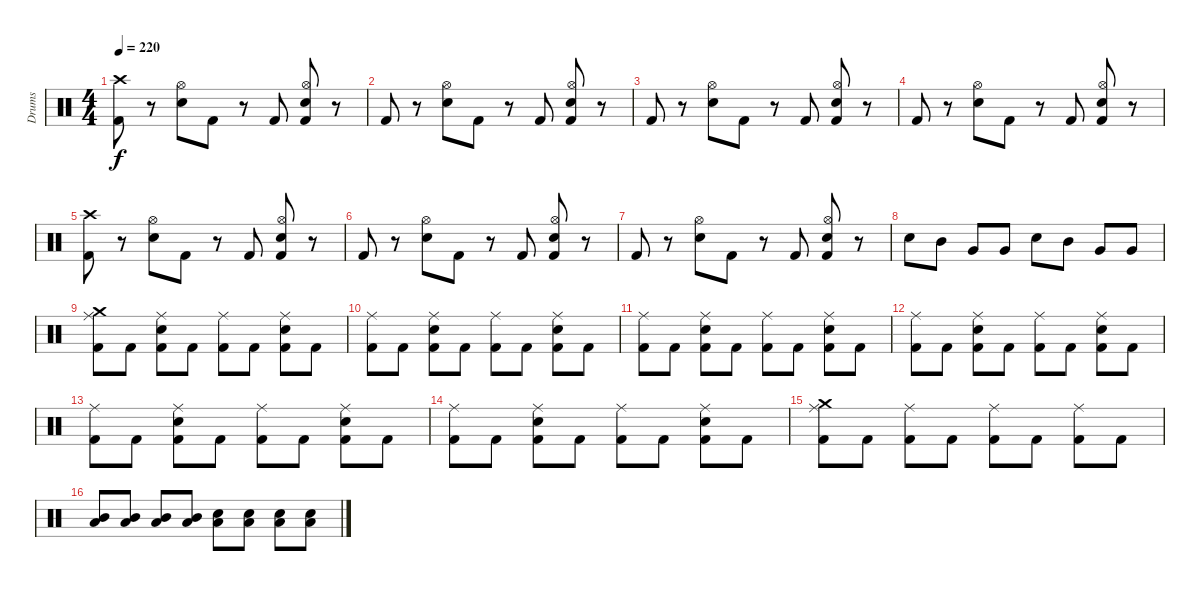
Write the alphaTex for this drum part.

\track ("Drums" "Drums") {instrument percussion}
\staff {score}
\articulation defaults
\ts (4 4)
\tempo 220
\clef neutral
\ks c
("Crash high (hit)" "Kick (hit) 2").8{dy f} r.8 ("Hi-Hat (open)" "Electric Snare (hit)").8 "Kick (hit) 2".8 r.8 "Kick (hit) 2".8 ("Hi-Hat (open)" "Electric Snare (hit)" "Kick (hit) 2").8 r.8 |
"Kick (hit) 2".8 r.8 ("Electric Snare (hit)" "Hi-Hat (open)").8 "Kick (hit) 2".8 r.8 "Kick (hit) 2".8 ("Electric Snare (hit)" "Hi-Hat (open)" "Kick (hit) 2").8 r.8 |
"Kick (hit) 2".8 r.8 ("Hi-Hat (open)" "Electric Snare (hit)").8 "Kick (hit) 2".8 r.8 "Kick (hit) 2".8 ("Hi-Hat (open)" "Electric Snare (hit)" "Kick (hit) 2").8 r.8 |
"Kick (hit) 2".8 r.8 ("Hi-Hat (open)" "Electric Snare (hit)").8 "Kick (hit) 2".8 r.8 "Kick (hit) 2".8 ("Hi-Hat (open)" "Electric Snare (hit)" "Kick (hit) 2").8 r.8 |
("Crash high (hit)" "Kick (hit) 2").8 r.8 ("Hi-Hat (open)" "Electric Snare (hit)").8 "Kick (hit) 2".8 r.8 "Kick (hit) 2".8 ("Hi-Hat (open)" "Electric Snare (hit)" "Kick (hit) 2").8 r.8 |
"Kick (hit) 2".8 r.8 ("Electric Snare (hit)" "Hi-Hat (open)").8 "Kick (hit) 2".8 r.8 "Kick (hit) 2".8 ("Electric Snare (hit)" "Hi-Hat (open)" "Kick (hit) 2").8 r.8 |
"Kick (hit) 2".8 r.8 ("Hi-Hat (open)" "Electric Snare (hit)").8 "Kick (hit) 2".8 r.8 "Kick (hit) 2".8 ("Hi-Hat (open)" "Electric Snare (hit)" "Kick (hit) 2").8 r.8 |
"Electric Snare (hit)".8 "Mid Tom (hit)".8 "Very Low Tom (hit)".8 "Very Low Tom (hit)".8 "Electric Snare (hit)".8 "Mid Tom (hit)".8 "Very Low Tom (hit)".8 "Very Low Tom (hit)".8 |
("Crash medium (hit)" "Ride (middle)" "Kick (hit) 2").8 "Kick (hit) 2".8 ("Electric Snare (hit)" "Ride (middle)" "Kick (hit) 2").8 "Kick (hit) 2".8 ("Ride (middle)" "Kick (hit) 2").8 "Kick (hit) 2".8 ("Electric Snare (hit)" "Ride (middle)" "Kick (hit) 2").8 "Kick (hit) 2".8 |
("Ride (middle)" "Kick (hit) 2").8 "Kick (hit) 2".8 ("Electric Snare (hit)" "Ride (middle)" "Kick (hit) 2").8 "Kick (hit) 2".8 ("Ride (middle)" "Kick (hit) 2").8 "Kick (hit) 2".8 ("Electric Snare (hit)" "Ride (middle)" "Kick (hit) 2").8 "Kick (hit) 2".8 |
("Ride (middle)" "Kick (hit) 2").8 "Kick (hit) 2".8 ("Electric Snare (hit)" "Ride (middle)" "Kick (hit) 2").8 "Kick (hit) 2".8 ("Ride (middle)" "Kick (hit) 2").8 "Kick (hit) 2".8 ("Electric Snare (hit)" "Ride (middle)" "Kick (hit) 2").8 "Kick (hit) 2".8 |
("Ride (middle)" "Kick (hit) 2").8 "Kick (hit) 2".8 ("Electric Snare (hit)" "Ride (middle)" "Kick (hit) 2").8 "Kick (hit) 2".8 ("Ride (middle)" "Kick (hit) 2").8 "Kick (hit) 2".8 ("Electric Snare (hit)" "Ride (middle)" "Kick (hit) 2").8 "Kick (hit) 2".8 |
("Ride (middle)" "Kick (hit) 2").8 "Kick (hit) 2".8 ("Electric Snare (hit)" "Ride (middle)" "Kick (hit) 2").8 "Kick (hit) 2".8 ("Ride (middle)" "Kick (hit) 2").8 "Kick (hit) 2".8 ("Electric Snare (hit)" "Ride (middle)" "Kick (hit) 2").8 "Kick (hit) 2".8 |
("Ride (middle)" "Kick (hit) 2").8 "Kick (hit) 2".8 ("Electric Snare (hit)" "Ride (middle)" "Kick (hit) 2").8 "Kick (hit) 2".8 ("Ride (middle)" "Kick (hit) 2").8 "Kick (hit) 2".8 ("Electric Snare (hit)" "Ride (middle)" "Kick (hit) 2").8 "Kick (hit) 2".8 |
("Crash medium (hit)" "Ride (middle)" "Kick (hit) 2").8 "Kick (hit) 2".8 ("Ride (middle)" "Kick (hit) 2").8 "Kick (hit) 2".8 ("Ride (middle)" "Kick (hit) 2").8 "Kick (hit) 2".8 ("Ride (middle)" "Kick (hit) 2").8 "Kick (hit) 2".8 |
("Low Tom (hit)" "Mid Tom (hit)").8 ("Low Tom (hit)" "Mid Tom (hit)").8 ("Low Tom (hit)" "Mid Tom (hit)").8 ("Low Tom (hit)" "Mid Tom (hit)").8 ("Low Tom (hit)" "Electric Snare (hit)").8 ("Low Tom (hit)" "Electric Snare (hit)").8 ("Low Tom (hit)" "Electric Snare (hit)").8 ("Low Tom (hit)" "Electric Snare (hit)").8
